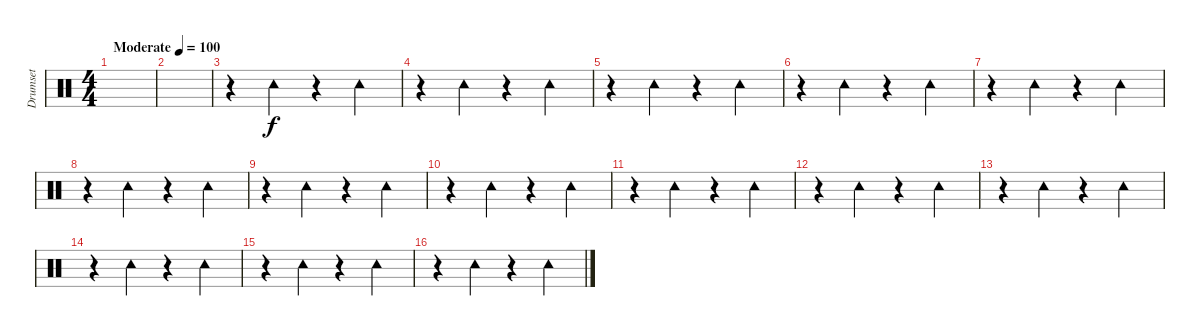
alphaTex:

\track ("Drumset" "Drumset") {instrument percussion}
\staff {score}
\articulation defaults
\ts (4 4)
\tempo (100 "Moderate")
\clef neutral
\ks c
|
|
r.4 "Tambourine (hit)".4 r.4 "Tambourine (hit)".4 |
r.4 "Tambourine (hit)".4 r.4 "Tambourine (hit)".4 |
r.4 "Tambourine (hit)".4 r.4 "Tambourine (hit)".4 |
r.4 "Tambourine (hit)".4 r.4 "Tambourine (hit)".4 |
r.4 "Tambourine (hit)".4 r.4 "Tambourine (hit)".4 |
r.4 "Tambourine (hit)".4 r.4 "Tambourine (hit)".4 |
r.4 "Tambourine (hit)".4 r.4 "Tambourine (hit)".4 |
r.4 "Tambourine (hit)".4 r.4 "Tambourine (hit)".4 |
r.4 "Tambourine (hit)".4 r.4 "Tambourine (hit)".4 |
r.4 "Tambourine (hit)".4 r.4 "Tambourine (hit)".4 |
r.4 "Tambourine (hit)".4 r.4 "Tambourine (hit)".4 |
r.4 "Tambourine (hit)".4 r.4 "Tambourine (hit)".4 |
r.4 "Tambourine (hit)".4 r.4 "Tambourine (hit)".4 |
r.4 "Tambourine (hit)".4 r.4 "Tambourine (hit)".4
